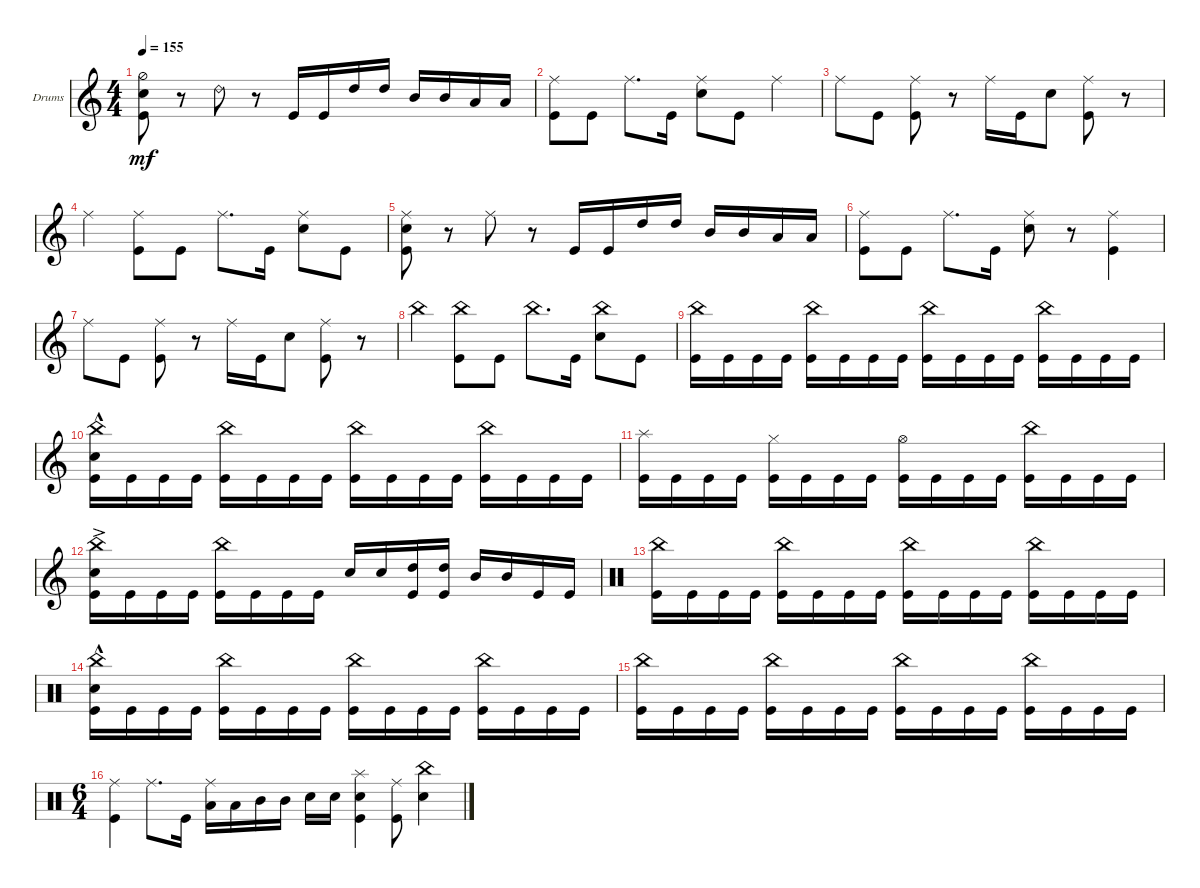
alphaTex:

\defaultSystemsLayout 4
\bracketExtendMode groupsimilarinstruments
\firstSystemTrackNameOrientation horizontal
\otherSystemsTrackNameOrientation horizontal
\track ("Drumkit" "Drums") {instrument percussion}
\staff {score}
\articulation defaults
\ts (4 4)
\tempo 155
\clef g2
\ks c
("Kick (hit)" "Snare (hit) 2" "Hi-Hat (half)").8{dy mf} r.8 "Ride (bell) 2".8 r.8 "Kick (hit)".16 "Kick (hit)".16 "High Tom (hit)".16 "High Tom (hit)".16 "Mid Tom (hit)".16 "Mid Tom (hit)".16 "Low Tom (hit)".16 "Low Tom (hit)".16 |
("Kick (hit)" "Ride (middle)").8 "Kick (hit)".8 "Ride (middle)".8{d} "Kick (hit)".16 ("Snare (hit) 2" "Ride (middle)").8 "Kick (hit)".8 "Ride (middle)".4 |
"Ride (middle)".8 "Kick (hit)".8 ("Kick (hit)" "Ride (middle)").8 r.8 "Ride (middle)".16 "Kick (hit)".16 "Snare (hit) 2".8 ("Kick (hit)" "Ride (middle)").8 r.8 |
"Ride (middle)".4 ("Kick (hit)" "Ride (middle)").8 "Kick (hit)".8 "Ride (middle)".8{d} "Kick (hit)".16 ("Snare (hit) 2" "Ride (middle)").8 "Kick (hit)".8 |
("Kick (hit)" "Snare (hit) 2" "Ride (middle)").8 r.8 "Ride (middle)".8 r.8 "Kick (hit)".16 "Kick (hit)".16 "High Tom (hit)".16 "High Tom (hit)".16 "Mid Tom (hit)".16 "Mid Tom (hit)".16 "Low Tom (hit)".16 "Low Tom (hit)".16 |
("Kick (hit)" "Ride (middle)").8 "Kick (hit)".8 "Ride (middle)".8{d} "Kick (hit)".16 ("Snare (hit) 2" "Ride (middle)").8 r.8 ("Ride (middle)" "Kick (hit)").4 |
"Ride (middle)".8 "Kick (hit)".8 ("Ride (middle)" "Kick (hit)").8 r.8 "Ride (middle)".16 "Kick (hit)".16 "Snare (hit) 2".8 ("Kick (hit)" "Ride (middle)").8 r.8 |
"China (hit)".4 ("Kick (hit)" "China (hit)").8 "Kick (hit)".8 "China (hit)".8{d} "Kick (hit)".16 ("Snare (hit) 2" "China (hit)").8 "Kick (hit)".8 |
("Kick (hit)" "China (hit)").16 "Kick (hit)".16 "Kick (hit)".16 "Kick (hit)".16 ("Kick (hit)" "China (hit)").16 "Kick (hit)".16 "Kick (hit)".16 "Kick (hit)".16 ("Kick (hit)" "China (hit)").16 "Kick (hit)".16 "Kick (hit)".16 "Kick (hit)".16 ("Kick (hit)" "China (hit)").16 "Kick (hit)".16 "Kick (hit)".16 "Kick (hit)".16 |
("Kick (hit)" "China (hit)" "Snare (hit) 2"{hac}).16 "Kick (hit)".16 "Kick (hit)".16 "Kick (hit)".16 ("Kick (hit)" "China (hit)").16 "Kick (hit)".16 "Kick (hit)".16 "Kick (hit)".16 ("Kick (hit)" "China (hit)").16 "Kick (hit)".16 "Kick (hit)".16 "Kick (hit)".16 ("Kick (hit)" "China (hit)").16 "Kick (hit)".16 "Kick (hit)".16 "Kick (hit)".16 |
("Kick (hit)" "Splash (hit)").16 "Kick (hit)".16 "Kick (hit)".16 "Kick (hit)".16 ("Kick (hit)" "Hi-Hat (closed)").16 "Kick (hit)".16 "Kick (hit)".16 "Kick (hit)".16 ("Kick (hit)" "Hi-Hat (open)").16 "Kick (hit)".16 "Kick (hit)".16 "Kick (hit)".16 ("Kick (hit)" "China (hit)").16 "Kick (hit)".16 "Kick (hit)".16 "Kick (hit)".16 |
("Kick (hit)" "China (hit)" "Snare (hit) 2"{ac}).16 "Kick (hit)".16 "Kick (hit)".16 "Kick (hit)".16 ("Kick (hit)" "China (hit)").16 "Kick (hit)".16 "Kick (hit)".16 "Kick (hit)".16 "Snare (hit) 2".16 "Snare (hit) 2".16 ("High Tom (hit)" "Kick (hit)").16 ("High Tom (hit)" "Kick (hit)").16 "Mid Tom (hit)".16 "Mid Tom (hit)".16 "Kick (hit)".16 "Kick (hit)".16 |
\clef neutral
("Kick (hit)" "China (hit)").16 "Kick (hit)".16 "Kick (hit)".16 "Kick (hit)".16 ("Kick (hit)" "China (hit)").16 "Kick (hit)".16 "Kick (hit)".16 "Kick (hit)".16 ("Kick (hit)" "China (hit)").16 "Kick (hit)".16 "Kick (hit)".16 "Kick (hit)".16 ("Kick (hit)" "China (hit)").16 "Kick (hit)".16 "Kick (hit)".16 "Kick (hit)".16 |
("Kick (hit)" "China (hit)" "Snare (hit) 2"{hac}).16 "Kick (hit)".16 "Kick (hit)".16 "Kick (hit)".16 ("Kick (hit)" "China (hit)").16 "Kick (hit)".16 "Kick (hit)".16 "Kick (hit)".16 ("Kick (hit)" "China (hit)").16 "Kick (hit)".16 "Kick (hit)".16 "Kick (hit)".16 ("Kick (hit)" "China (hit)").16 "Kick (hit)".16 "Kick (hit)".16 "Kick (hit)".16 |
("Kick (hit)" "China (hit)").16 "Kick (hit)".16 "Kick (hit)".16 "Kick (hit)".16 ("Kick (hit)" "China (hit)").16 "Kick (hit)".16 "Kick (hit)".16 "Kick (hit)".16 ("Kick (hit)" "China (hit)").16 "Kick (hit)".16 "Kick (hit)".16 "Kick (hit)".16 ("Kick (hit)" "China (hit)").16 "Kick (hit)".16 "Kick (hit)".16 "Kick (hit)".16 |
\ts (6 4)
("Kick (hit)" "Ride (middle)").4 "Ride (middle)".8{d} "Kick (hit)".16 ("Ride (middle)" "Low Tom (hit)").16 "Low Tom (hit)".16 "Mid Tom (hit)".16 "Mid Tom (hit)".16 "Snare (hit) 2".16 "Snare (hit) 2".16 ("Splash (hit)" "Snare (hit) 2" "Kick (hit)").4 ("Ride (middle)" "Kick (hit)").8 ("China (hit)" "Snare (hit) 2").4
